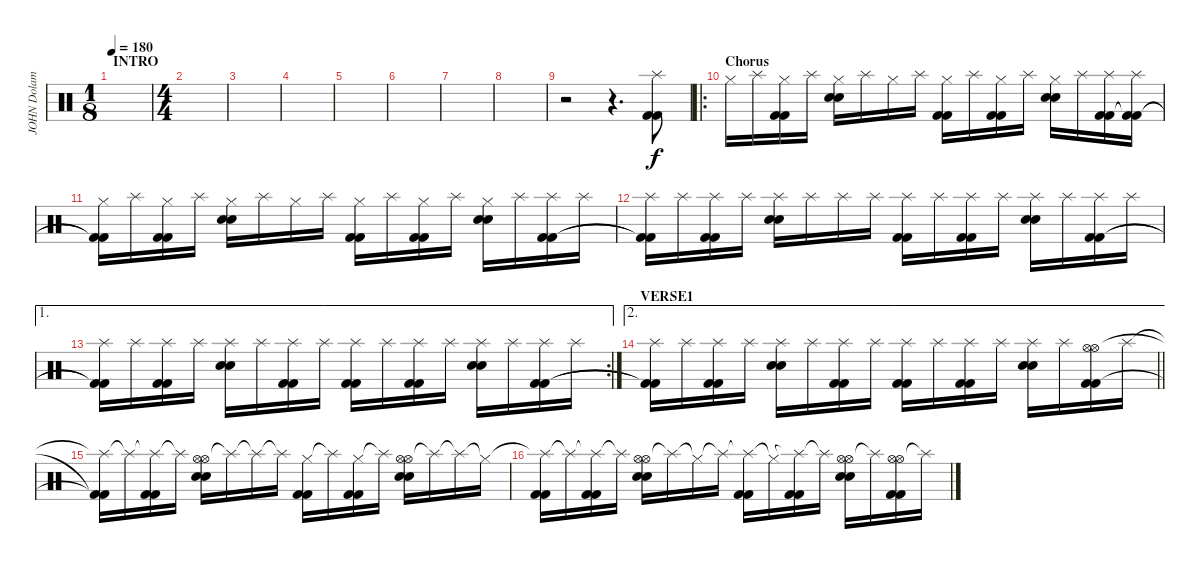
\track ("JOHN Dolamyan" "JOHN Dolam") {instrument percussion}
\staff {score}
\articulation defaults
\ts (1 8)
\section ("" "INTRO")
\tempo 180
\clef neutral
\ks c
|
\ts (4 4)
|
|
|
|
|
|
|
r.2 r.4{d} ("Splash (hit)" "Kick (hit) 2" "Kick (hit) 2").8 |
\ro
\section ("" "Chorus")
"Hi-Hat (closed)".16 "Splash (hit)".16 ("Hi-Hat (closed)" "Kick (hit) 2" "Kick (hit) 2").16 "Splash (hit)".16 ("Hi-Hat (closed)" "Electric Snare (hit)" "Electric Snare (hit)").16 "Splash (hit)".16 "Hi-Hat (closed)".16 "Splash (hit)".16 ("Hi-Hat (closed)" "Kick (hit) 2" "Kick (hit) 2").16 "Splash (hit)".16 ("Hi-Hat (closed)" "Kick (hit) 2" "Kick (hit) 2").16 "Splash (hit)".16 ("Hi-Hat (closed)" "Electric Snare (hit)" "Electric Snare (hit)").16 "Splash (hit)".16 ("Splash (hit)" "Kick (hit) 2" "Kick (hit) 2").16 ("Splash (hit)" "Kick (hit) 2"{t} "Kick (hit) 2"{t}).16 |
("Hi-Hat (closed)" "Kick (hit) 2"{t} "Kick (hit) 2"{t}).16 "Splash (hit)".16 ("Hi-Hat (closed)" "Kick (hit) 2" "Kick (hit) 2").16 "Splash (hit)".16 ("Hi-Hat (closed)" "Electric Snare (hit)" "Electric Snare (hit)").16 "Splash (hit)".16 "Hi-Hat (closed)".16 "Splash (hit)".16 ("Hi-Hat (closed)" "Kick (hit) 2" "Kick (hit) 2").16 "Splash (hit)".16 ("Hi-Hat (closed)" "Kick (hit) 2" "Kick (hit) 2").16 "Splash (hit)".16 ("Hi-Hat (closed)" "Electric Snare (hit)" "Electric Snare (hit)").16 "Splash (hit)".16 ("Splash (hit)" "Kick (hit) 2" "Kick (hit) 2").16 "Splash (hit)".16 |
("Splash (hit)" "Kick (hit) 2"{t} "Kick (hit) 2"{t}).16 "Splash (hit)".16 ("Splash (hit)" "Kick (hit) 2" "Kick (hit) 2").16 "Splash (hit)".16 ("Splash (hit)" "Electric Snare (hit)" "Electric Snare (hit)").16 "Splash (hit)".16 "Splash (hit)".16 "Splash (hit)".16 ("Splash (hit)" "Kick (hit) 2" "Kick (hit) 2").16 "Splash (hit)".16 ("Splash (hit)" "Kick (hit) 2" "Kick (hit) 2").16 "Splash (hit)".16 ("Splash (hit)" "Electric Snare (hit)" "Electric Snare (hit)").16 "Splash (hit)".16 ("Splash (hit)" "Kick (hit) 2" "Kick (hit) 2").16 "Splash (hit)".16 |
\ae 1
\rc 2
("Splash (hit)" "Kick (hit) 2"{t} "Kick (hit) 2"{t}).16 "Splash (hit)".16 ("Splash (hit)" "Kick (hit) 2" "Kick (hit) 2").16 "Splash (hit)".16 ("Splash (hit)" "Electric Snare (hit)" "Electric Snare (hit)").16 "Splash (hit)".16 ("Splash (hit)" "Kick (hit) 2" "Kick (hit) 2").16 "Splash (hit)".16 ("Splash (hit)" "Kick (hit) 2" "Kick (hit) 2").16 "Splash (hit)".16 ("Splash (hit)" "Kick (hit) 2" "Kick (hit) 2").16 "Splash (hit)".16 ("Splash (hit)" "Electric Snare (hit)" "Electric Snare (hit)").16 "Splash (hit)".16 ("Splash (hit)" "Kick (hit) 2" "Kick (hit) 2").16 "Splash (hit)".16 |
\ae 2
\section ("" "VERSE1")
\barLineRight lightlight
("Splash (hit)" "Kick (hit) 2"{t} "Kick (hit) 2"{t}).16 "Splash (hit)".16 ("Splash (hit)" "Kick (hit) 2" "Kick (hit) 2").16 "Splash (hit)".16 ("Splash (hit)" "Electric Snare (hit)" "Electric Snare (hit)").16 "Splash (hit)".16 ("Splash (hit)" "Kick (hit) 2" "Kick (hit) 2").16 "Splash (hit)".16 ("Splash (hit)" "Kick (hit) 2" "Kick (hit) 2").16 "Splash (hit)".16 ("Splash (hit)" "Kick (hit) 2" "Kick (hit) 2").16 "Splash (hit)".16 ("Splash (hit)" "Electric Snare (hit)" "Electric Snare (hit)").16 "Splash (hit)".16 ("Hi-Hat (open)" "Hi-Hat (open)" "Kick (hit) 2" "Kick (hit) 2").16 "Splash (hit)".16 |
("Splash (hit)"{t} "Kick (hit) 2"{t} "Kick (hit) 2"{t}).16 "Splash (hit)"{t}.16 ("Splash (hit)"{t} "Kick (hit) 2" "Kick (hit) 2").16 "Splash (hit)"{t}.16 ("Hi-Hat (open)" "Hi-Hat (open)" "Electric Snare (hit)" "Electric Snare (hit)").16 "Splash (hit)"{t}.16 "Splash (hit)"{t}.16 "Splash (hit)"{t}.16 ("Hi-Hat (closed)" "Kick (hit) 2" "Kick (hit) 2").16 "Splash (hit)"{t}.16 ("Hi-Hat (closed)" "Kick (hit) 2" "Kick (hit) 2").16 "Splash (hit)"{t}.16 ("Hi-Hat (open)" "Hi-Hat (open)" "Electric Snare (hit)" "Electric Snare (hit)").16 "Splash (hit)"{t}.16 "Splash (hit)"{t}.16 "Hi-Hat (closed)"{t}.16 |
("Splash (hit)"{t} "Kick (hit) 2" "Kick (hit) 2").16 "Splash (hit)"{t}.16 ("Splash (hit)"{t} "Kick (hit) 2" "Kick (hit) 2").16 "Splash (hit)"{t}.16 ("Hi-Hat (open)" "Hi-Hat (open)" "Electric Snare (hit)" "Electric Snare (hit)").16 "Splash (hit)"{t}.16 "Hi-Hat (closed)"{t}.16 "Splash (hit)"{t}.16 ("Splash (hit)"{t} "Kick (hit) 2" "Kick (hit) 2").16 "Hi-Hat (closed)"{t}.16 ("Splash (hit)"{t} "Kick (hit) 2" "Kick (hit) 2").16 "Splash (hit)"{t}.16 ("Hi-Hat (open)" "Hi-Hat (open)" "Electric Snare (hit)" "Electric Snare (hit)").16 "Splash (hit)"{t}.16 ("Hi-Hat (open)" "Hi-Hat (open)" "Kick (hit) 2" "Kick (hit) 2").16 "Splash (hit)"{t}.16
